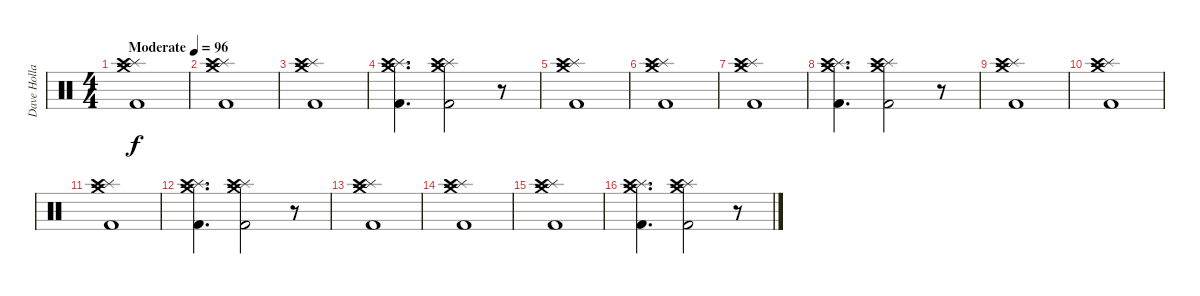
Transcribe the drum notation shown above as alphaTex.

\track ("Dave Holland" "Dave Holla") {instrument percussion}
\staff {score}
\articulation defaults
\ts (4 4)
\tempo (96 "Moderate")
\clef neutral
\ks c
("Crash medium (hit)" "Splash (hit)" "Crash high (hit)" "Kick (hit) 2").1{dy f} |
("Crash medium (hit)" "Splash (hit)" "Crash high (hit)" "Kick (hit) 2").1 |
("Crash medium (hit)" "Splash (hit)" "Crash high (hit)" "Kick (hit) 2").1 |
("Crash medium (hit)" "Splash (hit)" "Crash high (hit)" "Kick (hit) 2").4{d} ("Crash medium (hit)" "Splash (hit)" "Crash high (hit)" "Kick (hit) 2").2 r.8 |
("Crash medium (hit)" "Splash (hit)" "Crash high (hit)" "Kick (hit) 2").1 |
("Crash medium (hit)" "Splash (hit)" "Crash high (hit)" "Kick (hit) 2").1 |
("Crash medium (hit)" "Splash (hit)" "Crash high (hit)" "Kick (hit) 2").1 |
("Crash medium (hit)" "Splash (hit)" "Crash high (hit)" "Kick (hit) 2").4{d} ("Crash medium (hit)" "Splash (hit)" "Crash high (hit)" "Kick (hit) 2").2 r.8 |
("Crash medium (hit)" "Splash (hit)" "Crash high (hit)" "Kick (hit) 2").1 |
("Crash medium (hit)" "Splash (hit)" "Crash high (hit)" "Kick (hit) 2").1 |
("Crash medium (hit)" "Splash (hit)" "Crash high (hit)" "Kick (hit) 2").1 |
("Crash medium (hit)" "Splash (hit)" "Crash high (hit)" "Kick (hit) 2").4{d} ("Crash medium (hit)" "Splash (hit)" "Crash high (hit)" "Kick (hit) 2").2 r.8 |
("Crash medium (hit)" "Splash (hit)" "Crash high (hit)" "Kick (hit) 2").1 |
("Crash medium (hit)" "Splash (hit)" "Crash high (hit)" "Kick (hit) 2").1 |
("Crash medium (hit)" "Splash (hit)" "Crash high (hit)" "Kick (hit) 2").1 |
("Crash medium (hit)" "Splash (hit)" "Crash high (hit)" "Kick (hit) 2").4{d} ("Crash medium (hit)" "Splash (hit)" "Crash high (hit)" "Kick (hit) 2").2 r.8
